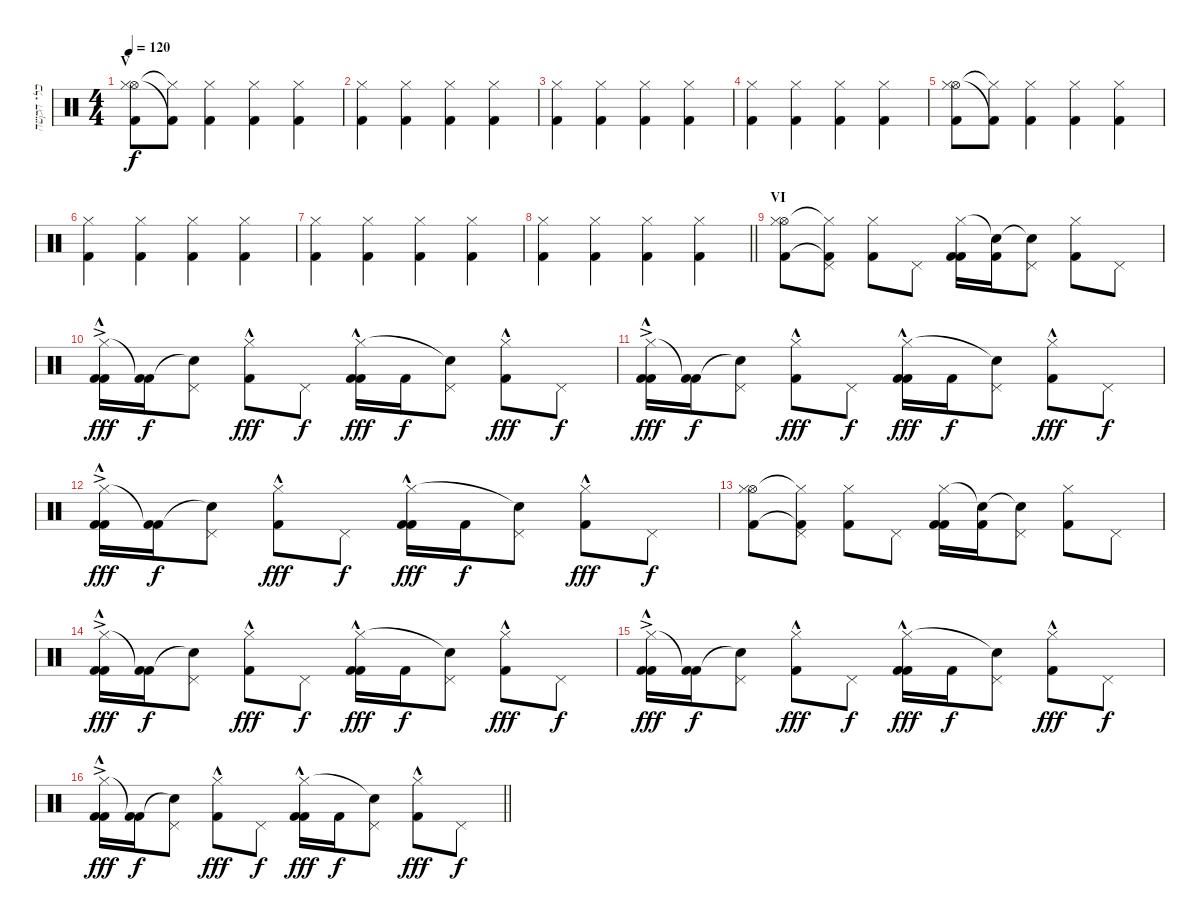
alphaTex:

\track ("כלי הקשה" "כלי הקשה") {instrument percussion}
\staff {score}
\articulation defaults
\ts (4 4)
\section ("" "V")
\tempo 120
\clef neutral
\ks c
("Hi-Hat (open)" "Hi-Hat (closed)" "Kick (hit) 2").8{dy f} ("Hi-Hat (closed)"{t} "Kick (hit) 2"{t}).8 ("Hi-Hat (closed)" "Kick (hit) 2").4 ("Hi-Hat (closed)" "Kick (hit) 2").4 ("Hi-Hat (closed)" "Kick (hit) 2").4 |
("Hi-Hat (closed)" "Kick (hit) 2").4 ("Hi-Hat (closed)" "Kick (hit) 2").4 ("Hi-Hat (closed)" "Kick (hit) 2").4 ("Hi-Hat (closed)" "Kick (hit) 2").4 |
("Hi-Hat (closed)" "Kick (hit) 2").4 ("Hi-Hat (closed)" "Kick (hit) 2").4 ("Hi-Hat (closed)" "Kick (hit) 2").4 ("Hi-Hat (closed)" "Kick (hit) 2").4 |
("Hi-Hat (closed)" "Kick (hit) 2").4 ("Hi-Hat (closed)" "Kick (hit) 2").4 ("Hi-Hat (closed)" "Kick (hit) 2").4 ("Hi-Hat (closed)" "Kick (hit) 2").4 |
("Hi-Hat (open)" "Hi-Hat (closed)" "Kick (hit) 2").8 ("Hi-Hat (closed)"{t} "Kick (hit) 2"{t}).8 ("Hi-Hat (closed)" "Kick (hit) 2").4 ("Hi-Hat (closed)" "Kick (hit) 2").4 ("Hi-Hat (closed)" "Kick (hit) 2").4 |
("Hi-Hat (closed)" "Kick (hit) 2").4 ("Hi-Hat (closed)" "Kick (hit) 2").4 ("Hi-Hat (closed)" "Kick (hit) 2").4 ("Hi-Hat (closed)" "Kick (hit) 2").4 |
("Hi-Hat (closed)" "Kick (hit) 2").4 ("Hi-Hat (closed)" "Kick (hit) 2").4 ("Hi-Hat (closed)" "Kick (hit) 2").4 ("Hi-Hat (closed)" "Kick (hit) 2").4 |
\barLineRight lightlight
("Hi-Hat (closed)" "Kick (hit) 2").4 ("Hi-Hat (closed)" "Kick (hit) 2").4 ("Hi-Hat (closed)" "Kick (hit) 2").4 ("Hi-Hat (closed)" "Kick (hit) 2").4 |
\section ("" "VI")
("Hi-Hat (open)" "Hi-Hat (closed)" "Kick (hit) 2").8 ("Pedal Hi-Hat (hit)" "Hi-Hat (closed)"{t} "Kick (hit) 2"{t}).8 ("Hi-Hat (closed)" "Kick (hit) 2").8 "Pedal Hi-Hat (hit)".8 ("Kick (hit) 2" "Hi-Hat (closed)" "Kick (hit) 2").16 ("Kick (hit) 2" "Snare (hit)"{t}).16 ("Pedal Hi-Hat (hit)" "Snare (hit)"{t}).8 ("Hi-Hat (closed)" "Kick (hit) 2").8 "Pedal Hi-Hat (hit)".8 |
("Kick (hit) 2"{ac} "Hi-Hat (closed)"{hac} "Kick (hit) 2"{hac}).16{dy fff} ("Kick (hit) 2" "Kick (hit) 2"{t}).16{dy f} ("Pedal Hi-Hat (hit)" "Snare (hit)"{t}).8 ("Hi-Hat (closed)"{hac} "Kick (hit) 2"{hac}).8{dy fff} "Pedal Hi-Hat (hit)".8{dy f} ("Kick (hit) 2" "Hi-Hat (closed)"{hac} "Kick (hit) 2"{hac}).16{dy fff} "Kick (hit) 2".16{dy f} ("Pedal Hi-Hat (hit)" "Snare (hit)"{t}).8 ("Hi-Hat (closed)"{hac} "Kick (hit) 2"{hac}).8{dy fff} "Pedal Hi-Hat (hit)".8{dy f} |
("Kick (hit) 2"{ac} "Hi-Hat (closed)"{hac} "Kick (hit) 2"{hac}).16{dy fff} ("Kick (hit) 2" "Kick (hit) 2"{t}).16{dy f} ("Pedal Hi-Hat (hit)" "Snare (hit)"{t}).8 ("Hi-Hat (closed)"{hac} "Kick (hit) 2"{hac}).8{dy fff} "Pedal Hi-Hat (hit)".8{dy f} ("Kick (hit) 2" "Hi-Hat (closed)"{hac} "Kick (hit) 2"{hac}).16{dy fff} "Kick (hit) 2".16{dy f} ("Pedal Hi-Hat (hit)" "Snare (hit)"{t}).8 ("Hi-Hat (closed)"{hac} "Kick (hit) 2"{hac}).8{dy fff} "Pedal Hi-Hat (hit)".8{dy f} |
("Kick (hit) 2"{ac} "Hi-Hat (closed)"{hac} "Kick (hit) 2"{hac}).16{dy fff} ("Kick (hit) 2" "Kick (hit) 2"{t}).16{dy f} ("Pedal Hi-Hat (hit)" "Snare (hit)"{t}).8 ("Hi-Hat (closed)"{hac} "Kick (hit) 2"{hac}).8{dy fff} "Pedal Hi-Hat (hit)".8{dy f} ("Kick (hit) 2" "Hi-Hat (closed)"{hac} "Kick (hit) 2"{hac}).16{dy fff} "Kick (hit) 2".16{dy f} ("Pedal Hi-Hat (hit)" "Snare (hit)"{t}).8 ("Hi-Hat (closed)"{hac} "Kick (hit) 2"{hac}).8{dy fff} "Pedal Hi-Hat (hit)".8{dy f} |
("Hi-Hat (open)" "Hi-Hat (closed)" "Kick (hit) 2").8 ("Pedal Hi-Hat (hit)" "Hi-Hat (closed)"{t} "Kick (hit) 2"{t}).8 ("Hi-Hat (closed)" "Kick (hit) 2").8 "Pedal Hi-Hat (hit)".8 ("Kick (hit) 2" "Hi-Hat (closed)" "Kick (hit) 2").16 ("Kick (hit) 2" "Snare (hit)"{t}).16 ("Pedal Hi-Hat (hit)" "Snare (hit)"{t}).8 ("Hi-Hat (closed)" "Kick (hit) 2").8 "Pedal Hi-Hat (hit)".8 |
("Kick (hit) 2"{ac} "Hi-Hat (closed)"{hac} "Kick (hit) 2"{hac}).16{dy fff} ("Kick (hit) 2" "Kick (hit) 2"{t}).16{dy f} ("Pedal Hi-Hat (hit)" "Snare (hit)"{t}).8 ("Hi-Hat (closed)"{hac} "Kick (hit) 2"{hac}).8{dy fff} "Pedal Hi-Hat (hit)".8{dy f} ("Kick (hit) 2" "Hi-Hat (closed)"{hac} "Kick (hit) 2"{hac}).16{dy fff} "Kick (hit) 2".16{dy f} ("Pedal Hi-Hat (hit)" "Snare (hit)"{t}).8 ("Hi-Hat (closed)"{hac} "Kick (hit) 2"{hac}).8{dy fff} "Pedal Hi-Hat (hit)".8{dy f} |
("Kick (hit) 2"{ac} "Hi-Hat (closed)"{hac} "Kick (hit) 2"{hac}).16{dy fff} ("Kick (hit) 2" "Kick (hit) 2"{t}).16{dy f} ("Pedal Hi-Hat (hit)" "Snare (hit)"{t}).8 ("Hi-Hat (closed)"{hac} "Kick (hit) 2"{hac}).8{dy fff} "Pedal Hi-Hat (hit)".8{dy f} ("Kick (hit) 2" "Hi-Hat (closed)"{hac} "Kick (hit) 2"{hac}).16{dy fff} "Kick (hit) 2".16{dy f} ("Pedal Hi-Hat (hit)" "Snare (hit)"{t}).8 ("Hi-Hat (closed)"{hac} "Kick (hit) 2"{hac}).8{dy fff} "Pedal Hi-Hat (hit)".8{dy f} |
\barLineRight lightlight
("Kick (hit) 2"{ac} "Hi-Hat (closed)"{hac} "Kick (hit) 2"{hac}).16{dy fff} ("Kick (hit) 2" "Kick (hit) 2"{t}).16{dy f} ("Pedal Hi-Hat (hit)" "Snare (hit)"{t}).8 ("Hi-Hat (closed)"{hac} "Kick (hit) 2"{hac}).8{dy fff} "Pedal Hi-Hat (hit)".8{dy f} ("Kick (hit) 2" "Hi-Hat (closed)"{hac} "Kick (hit) 2"{hac}).16{dy fff} "Kick (hit) 2".16{dy f} ("Pedal Hi-Hat (hit)" "Snare (hit)"{t}).8 ("Hi-Hat (closed)"{hac} "Kick (hit) 2"{hac}).8{dy fff} "Pedal Hi-Hat (hit)".8{dy f}
